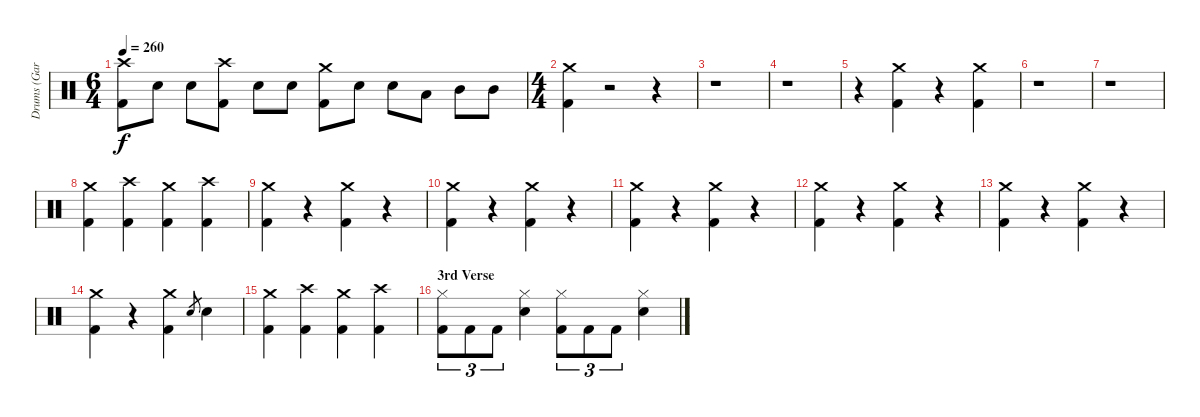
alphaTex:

\track ("Drums (Gar Samuelson)" "Drums (Gar") {instrument percussion}
\staff {score}
\articulation defaults
\ts (6 4)
\tempo 260
\clef neutral
\ks c
("Crash high (hit)" "Kick (hit) 2").8{dy f} "Snare (hit) 2".8 "Snare (hit) 2".8 ("Crash high (hit)" "Kick (hit) 2").8 "Snare (hit) 2".8 "Snare (hit) 2".8 ("Crash medium (hit)" "Kick (hit) 2").8 "Snare (hit) 2".8 "Snare (hit) 2".8 "Low Tom (hit)".8 "Mid Tom (hit)".8 "Mid Tom (hit)".8 |
\ts (4 4)
("Crash medium (hit)" "Kick (hit) 2").4 r.2 r.4 |
r.1 |
r.1 |
r.4 ("Crash medium (hit)" "Kick (hit) 2").4 r.4 ("Crash medium (hit)" "Kick (hit) 2").4 |
r.1 |
r.1 |
("Crash medium (hit)" "Kick (hit) 2").4 ("Crash high (hit)" "Kick (hit) 2").4 ("Crash medium (hit)" "Kick (hit) 2").4 ("Crash high (hit)" "Kick (hit) 2").4 |
("Crash medium (hit)" "Kick (hit) 2").4 r.4 ("Crash medium (hit)" "Kick (hit) 2").4 r.4 |
("Crash medium (hit)" "Kick (hit) 2").4 r.4 ("Crash medium (hit)" "Kick (hit) 2").4 r.4 |
("Crash medium (hit)" "Kick (hit) 2").4 r.4 ("Crash medium (hit)" "Kick (hit) 2").4 r.4 |
("Crash medium (hit)" "Kick (hit) 2").4 r.4 ("Crash medium (hit)" "Kick (hit) 2").4 r.4 |
("Crash medium (hit)" "Kick (hit) 2").4 r.4 ("Crash medium (hit)" "Kick (hit) 2").4 r.4 |
("Crash medium (hit)" "Kick (hit) 2").4 r.4 ("Crash medium (hit)" "Kick (hit) 2").4 "Snare (hit) 2".8{gr} "Snare (hit) 2".4 |
("Crash medium (hit)" "Kick (hit) 2").4 ("Crash high (hit)" "Kick (hit) 2").4 ("Crash medium (hit)" "Kick (hit) 2").4 ("Crash high (hit)" "Kick (hit) 2").4 |
\section ("" "3rd Verse")
("Hi-Hat (closed)" "Kick (hit) 2").8{tu (3 2)} "Kick (hit) 2".8{tu (3 2)} "Kick (hit) 2".8{tu (3 2)} ("Hi-Hat (closed)" "Snare (hit) 2").4 ("Hi-Hat (closed)" "Kick (hit) 2").8{tu (3 2)} "Kick (hit) 2".8{tu (3 2)} "Kick (hit) 2".8{tu (3 2)} ("Hi-Hat (closed)" "Snare (hit) 2").4
